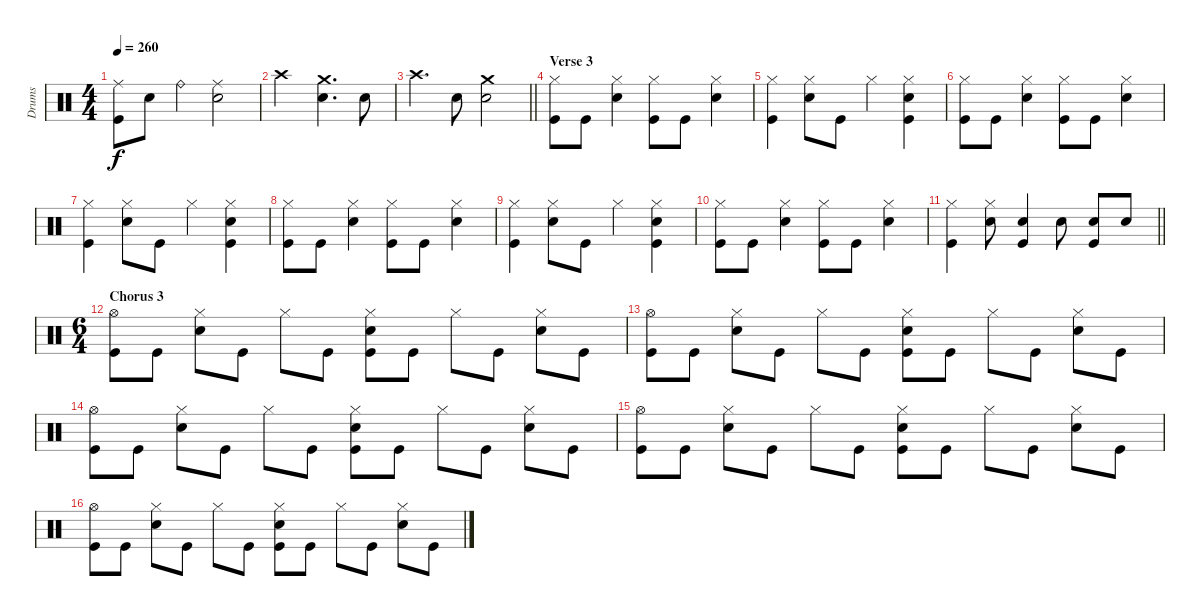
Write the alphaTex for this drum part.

\track ("Drums" "Drums") {instrument percussion}
\staff {score}
\articulation defaults
\ts (4 4)
\tempo 260
\clef neutral
\ks c
("Ride (middle)" "Kick (hit)").8{dy f} "Snare (hit) 2".8 "Ride (bell)".4 ("Ride (middle)" "Snare (hit) 2").2 |
"Crash high (hit)".2 ("Crash medium (hit)" "Snare (hit) 2").4{d} "Snare (hit) 2".8 |
\barLineRight lightlight "Crash high (hit)".4{d} "Snare (hit) 2".8
("Crash medium (hit)" "Snare (hit) 2").2 |
\section ("" "Verse 3")
("Hi-Hat (closed)" "Kick (hit)").8 "Kick (hit)".8 ("Hi-Hat (closed)" "Snare (hit) 2").4 ("Hi-Hat (closed)" "Kick (hit)").8 "Kick (hit)".8 ("Hi-Hat (closed)" "Snare (hit) 2").4 |
("Hi-Hat (closed)" "Kick (hit)").4 ("Hi-Hat (closed)" "Snare (hit) 2").8 "Kick (hit)".8 "Hi-Hat (closed)".4 ("Hi-Hat (closed)" "Snare (hit) 2" "Kick (hit)").4 |
("Hi-Hat (closed)" "Kick (hit)").8 "Kick (hit)".8 ("Hi-Hat (closed)" "Snare (hit) 2").4 ("Hi-Hat (closed)" "Kick (hit)").8 "Kick (hit)".8 ("Hi-Hat (closed)" "Snare (hit) 2").4 |
("Hi-Hat (closed)" "Kick (hit)").4 ("Hi-Hat (closed)" "Snare (hit) 2").8 "Kick (hit)".8 "Hi-Hat (closed)".4 ("Hi-Hat (closed)" "Snare (hit) 2" "Kick (hit)").4 |
("Hi-Hat (closed)" "Kick (hit)").8 "Kick (hit)".8 ("Hi-Hat (closed)" "Snare (hit) 2").4 ("Hi-Hat (closed)" "Kick (hit)").8 "Kick (hit)".8 ("Hi-Hat (closed)" "Snare (hit) 2").4 |
("Hi-Hat (closed)" "Kick (hit)").4 ("Hi-Hat (closed)" "Snare (hit) 2").8 "Kick (hit)".8 "Hi-Hat (closed)".4 ("Hi-Hat (closed)" "Snare (hit) 2" "Kick (hit)").4 |
("Hi-Hat (closed)" "Kick (hit)").8 "Kick (hit)".8 ("Hi-Hat (closed)" "Snare (hit) 2").4 ("Hi-Hat (closed)" "Kick (hit)").8 "Kick (hit)".8 ("Hi-Hat (closed)" "Snare (hit) 2").4 |
\barLineRight lightlight
("Hi-Hat (closed)" "Kick (hit)").4 ("Hi-Hat (closed)" "Snare (hit) 2").8 ("Snare (hit) 2" "Kick (hit)").4 "Snare (hit) 2".8 ("Snare (hit) 2" "Kick (hit)").8 "Snare (hit) 2".8 |
\ts (6 4)
\section ("" "Chorus 3")
("Hi-Hat (open)" "Kick (hit)").8 "Kick (hit)".8 ("Hi-Hat (closed)" "Snare (hit) 2").8 "Kick (hit)".8 "Hi-Hat (closed)".8 "Kick (hit)".8 ("Hi-Hat (closed)" "Snare (hit) 2" "Kick (hit)").8 "Kick (hit)".8 "Hi-Hat (closed)".8 "Kick (hit)".8 ("Hi-Hat (closed)" "Snare (hit) 2").8 "Kick (hit)".8 |
("Hi-Hat (open)" "Kick (hit)").8 "Kick (hit)".8 ("Hi-Hat (closed)" "Snare (hit) 2").8 "Kick (hit)".8 "Hi-Hat (closed)".8 "Kick (hit)".8 ("Hi-Hat (closed)" "Snare (hit) 2" "Kick (hit)").8 "Kick (hit)".8 "Hi-Hat (closed)".8 "Kick (hit)".8 ("Hi-Hat (closed)" "Snare (hit) 2").8 "Kick (hit)".8 |
("Hi-Hat (open)" "Kick (hit)").8 "Kick (hit)".8 ("Hi-Hat (closed)" "Snare (hit) 2").8 "Kick (hit)".8 "Hi-Hat (closed)".8 "Kick (hit)".8 ("Hi-Hat (closed)" "Snare (hit) 2" "Kick (hit)").8 "Kick (hit)".8 "Hi-Hat (closed)".8 "Kick (hit)".8 ("Hi-Hat (closed)" "Snare (hit) 2").8 "Kick (hit)".8 |
("Hi-Hat (open)" "Kick (hit)").8 "Kick (hit)".8 ("Hi-Hat (closed)" "Snare (hit) 2").8 "Kick (hit)".8 "Hi-Hat (closed)".8 "Kick (hit)".8 ("Hi-Hat (closed)" "Snare (hit) 2" "Kick (hit)").8 "Kick (hit)".8 "Hi-Hat (closed)".8 "Kick (hit)".8 ("Hi-Hat (closed)" "Snare (hit) 2").8 "Kick (hit)".8 |
("Hi-Hat (open)" "Kick (hit)").8 "Kick (hit)".8 ("Hi-Hat (closed)" "Snare (hit) 2").8 "Kick (hit)".8 "Hi-Hat (closed)".8 "Kick (hit)".8 ("Hi-Hat (closed)" "Snare (hit) 2" "Kick (hit)").8 "Kick (hit)".8 "Hi-Hat (closed)".8 "Kick (hit)".8 ("Hi-Hat (closed)" "Snare (hit) 2").8 "Kick (hit)".8
